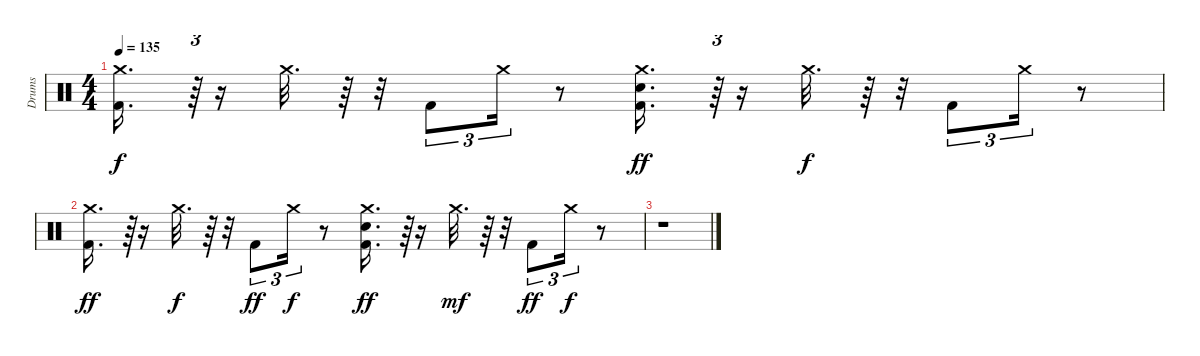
\track ("Drums" "Drums") {instrument percussion}
\staff {score}
\articulation defaults
\ts (4 4)
\tempo 135
\clef neutral
\ks c
("Crash medium (hit)" "Kick (hit) 2").16{d dy f} r.64{tu (3 2)} r.16 "Crash medium (hit)".32{d} r.64 r.32 "Kick (hit) 2".8{tu (3 2)} "Crash medium (hit)".16{tu (3 2)} r.8 ("Crash medium (hit)" "Kick (hit) 2" "Snare (hit) 2").16{d dy ff} r.64{tu (3 2)} r.16 "Crash medium (hit)".32{d dy f} r.64 r.32 "Kick (hit) 2".8{tu (3 2)} "Crash medium (hit)".16{tu (3 2)} r.8 |
("Crash medium (hit)" "Kick (hit) 2").16{d dy ff} r.64{tu (3 2)} r.16 "Crash medium (hit)".32{d dy f} r.64 r.32 "Kick (hit) 2".8{tu (3 2) dy ff} "Crash medium (hit)".16{tu (3 2) dy f} r.8 ("Crash medium (hit)" "Kick (hit) 2" "Snare (hit) 2").16{d dy ff} r.64{tu (3 2)} r.16 "Crash medium (hit)".32{d dy mf} r.64 r.32 "Kick (hit) 2".8{tu (3 2) dy ff} "Crash medium (hit)".16{tu (3 2) dy f} r.8 |
r.1
